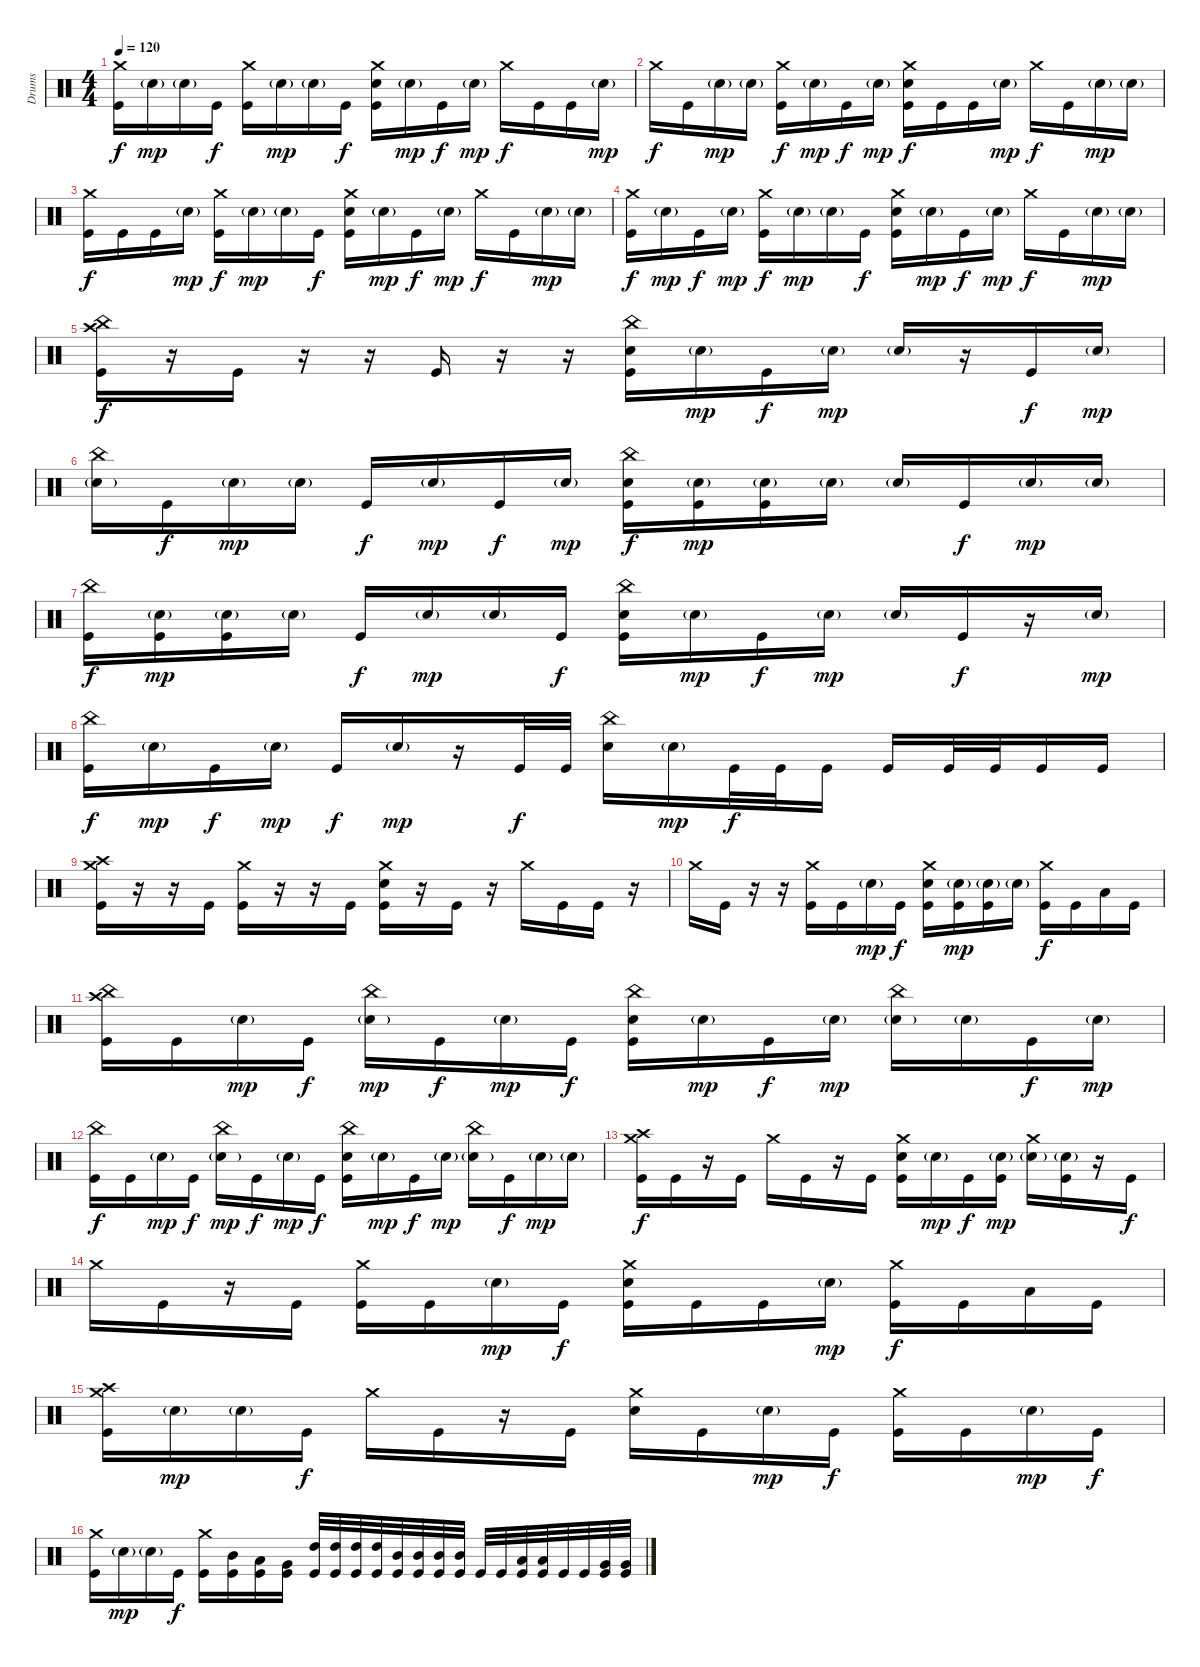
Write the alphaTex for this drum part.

\track ("Drums" "Drums") {instrument percussion}
\staff {score}
\articulation defaults
\ts (4 4)
\tempo 120
\clef neutral
\ks c
("Crash medium (hit)" "Kick (hit)").16{dy f} "Snare (hit) 2"{g}.16{dy mp} "Snare (hit) 2"{g}.16 "Kick (hit)".16{dy f} ("Crash medium (hit)" "Kick (hit)").16 "Snare (hit) 2"{g}.16{dy mp} "Snare (hit) 2"{g}.16 "Kick (hit)".16{dy f} ("Crash medium (hit)" "Kick (hit)" "Snare (hit) 2").16 "Snare (hit) 2"{g}.16{dy mp} "Kick (hit)".16{dy f} "Snare (hit) 2"{g}.16{dy mp} "Crash medium (hit)".16{dy f} "Kick (hit)".16 "Kick (hit)".16 "Snare (hit) 2"{g}.16{dy mp} |
"Crash medium (hit)".16{dy f} "Kick (hit)".16 "Snare (hit) 2"{g}.16{dy mp} "Snare (hit) 2"{g}.16 ("Crash medium (hit)" "Kick (hit)").16{dy f} "Snare (hit) 2"{g}.16{dy mp} "Kick (hit)".16{dy f} "Snare (hit) 2"{g}.16{dy mp} ("Crash medium (hit)" "Snare (hit) 2" "Kick (hit)").16{dy f} "Kick (hit)".16 "Kick (hit)".16 "Snare (hit) 2"{g}.16{dy mp} "Crash medium (hit)".16{dy f} "Kick (hit)".16 "Snare (hit) 2"{g}.16{dy mp} "Snare (hit) 2"{g}.16 |
("Crash medium (hit)" "Kick (hit)").16{dy f} "Kick (hit)".16 "Kick (hit)".16 "Snare (hit) 2"{g}.16{dy mp} ("Kick (hit)" "Crash medium (hit)").16{dy f} "Snare (hit) 2"{g}.16{dy mp} "Snare (hit) 2"{g}.16 "Kick (hit)".16{dy f} ("Crash medium (hit)" "Snare (hit) 2" "Kick (hit)").16 "Snare (hit) 2"{g}.16{dy mp} "Kick (hit)".16{dy f} "Snare (hit) 2"{g}.16{dy mp} "Crash medium (hit)".16{dy f} "Kick (hit)".16 "Snare (hit) 2"{g}.16{dy mp} "Snare (hit) 2"{g}.16 |
("Crash medium (hit)" "Kick (hit)").16{dy f} "Snare (hit) 2"{g}.16{dy mp} "Kick (hit)".16{dy f} "Snare (hit) 2"{g}.16{dy mp} ("Crash medium (hit)" "Kick (hit)").16{dy f} "Snare (hit) 2"{g}.16{dy mp} "Snare (hit) 2"{g}.16 "Kick (hit)".16{dy f} ("Crash medium (hit)" "Snare (hit) 2" "Kick (hit)").16 "Snare (hit) 2"{g}.16{dy mp} "Kick (hit)".16{dy f} "Snare (hit) 2"{g}.16{dy mp} "Crash medium (hit)".16{dy f} "Kick (hit)".16 "Snare (hit) 2"{g}.16{dy mp} "Snare (hit) 2"{g}.16 |
("Crash high (hit)" "China (hit)" "Kick (hit)").16{dy f} r.16 "Kick (hit)".16 r.16 r.16 "Kick (hit)".16 r.16 r.16 ("China (hit)" "Snare (hit) 2" "Kick (hit)").16 "Snare (hit) 2"{g}.16{dy mp} "Kick (hit)".16{dy f} "Snare (hit) 2"{g}.16{dy mp} "Snare (hit) 2"{g}.16 r.16 "Kick (hit)".16{dy f} "Snare (hit) 2"{g}.16{dy mp} |
("China (hit)" "Snare (hit) 2"{g}).16 "Kick (hit)".16{dy f} "Snare (hit) 2"{g}.16{dy mp} "Snare (hit) 2"{g}.16 "Kick (hit)".16{dy f} "Snare (hit) 2"{g}.16{dy mp} "Kick (hit)".16{dy f} "Snare (hit) 2"{g}.16{dy mp} ("China (hit)" "Snare (hit) 2" "Kick (hit)").16{dy f} ("Kick (hit)" "Snare (hit) 2"{g}).16{dy mp} ("Kick (hit)" "Snare (hit) 2"{g}).16 "Snare (hit) 2"{g}.16 "Snare (hit) 2"{g}.16 "Kick (hit)".16{dy f} "Snare (hit) 2"{g}.16{dy mp} "Snare (hit) 2"{g}.16 |
("Kick (hit)" "China (hit)").16{dy f} ("Kick (hit)" "Snare (hit) 2"{g}).16{dy mp} ("Kick (hit)" "Snare (hit) 2"{g}).16 "Snare (hit) 2"{g}.16 "Kick (hit)".16{dy f} "Snare (hit) 2"{g}.16{dy mp} "Snare (hit) 2"{g}.16 "Kick (hit)".16{dy f} ("China (hit)" "Snare (hit) 2" "Kick (hit)").16 "Snare (hit) 2"{g}.16{dy mp} "Kick (hit)".16{dy f} "Snare (hit) 2"{g}.16{dy mp} "Snare (hit) 2"{g}.16 "Kick (hit)".16{dy f} r.16 "Snare (hit) 2"{g}.16{dy mp} |
("China (hit)" "Kick (hit)").16{dy f} "Snare (hit) 2"{g}.16{dy mp} "Kick (hit)".16{dy f} "Snare (hit) 2"{g}.16{dy mp} "Kick (hit)".16{dy f} "Snare (hit) 2"{g}.16{dy mp} r.16 "Kick (hit)".32{dy f} "Kick (hit)".32 ("China (hit)" "Snare (hit) 2").16 "Snare (hit) 2"{g}.16{dy mp} "Kick (hit)".32{dy f} "Kick (hit)".32 "Kick (hit)".16 "Kick (hit)".16 "Kick (hit)".32 "Kick (hit)".32 "Kick (hit)".16 "Kick (hit)".16 |
("Crash high (hit)" "Crash medium (hit)" "Kick (hit)").16 r.16 r.16 "Kick (hit)".16 ("Crash medium (hit)" "Kick (hit)").16 r.16 r.16 "Kick (hit)".16 ("Crash medium (hit)" "Snare (hit) 2" "Kick (hit)").16 r.16 "Kick (hit)".16 r.16 "Crash medium (hit)".16 "Kick (hit)".16 "Kick (hit)".16 r.16 |
"Crash medium (hit)".16 "Kick (hit)".16 r.16 r.16 ("Crash medium (hit)" "Kick (hit)").16 "Kick (hit)".16 "Snare (hit) 2"{g}.16{dy mp} "Kick (hit)".16{dy f} ("Crash medium (hit)" "Snare (hit) 2" "Kick (hit)").16 ("Kick (hit)" "Snare (hit) 2"{g}).16{dy mp} ("Kick (hit)" "Snare (hit) 2"{g}).16 "Snare (hit) 2"{g}.16 ("Crash medium (hit)" "Kick (hit)").16{dy f} "Kick (hit)".16 "Low Tom (hit)".16 "Kick (hit)".16 |
("Crash high (hit)" "China (hit)" "Kick (hit)").16 "Kick (hit)".16 "Snare (hit) 2"{g}.16{dy mp} "Kick (hit)".16{dy f} ("China (hit)" "Snare (hit) 2"{g}).16{dy mp} "Kick (hit)".16{dy f} "Snare (hit) 2"{g}.16{dy mp} "Kick (hit)".16{dy f} ("China (hit)" "Kick (hit)" "Snare (hit) 2").16 "Snare (hit) 2"{g}.16{dy mp} "Kick (hit)".16{dy f} "Snare (hit) 2"{g}.16{dy mp} ("China (hit)" "Snare (hit) 2"{g}).16 "Snare (hit) 2"{g}.16 "Kick (hit)".16{dy f} "Snare (hit) 2"{g}.16{dy mp} |
("China (hit)" "Kick (hit)").16{dy f} "Kick (hit)".16 "Snare (hit) 2"{g}.16{dy mp} "Kick (hit)".16{dy f} ("China (hit)" "Snare (hit) 2"{g}).16{dy mp} "Kick (hit)".16{dy f} "Snare (hit) 2"{g}.16{dy mp} "Kick (hit)".16{dy f} ("China (hit)" "Snare (hit) 2" "Kick (hit)").16 "Snare (hit) 2"{g}.16{dy mp} "Kick (hit)".16{dy f} "Snare (hit) 2"{g}.16{dy mp} ("China (hit)" "Snare (hit) 2"{g}).16 "Kick (hit)".16{dy f} "Snare (hit) 2"{g}.16{dy mp} "Snare (hit) 2"{g}.16 |
("Crash high (hit)" "Crash medium (hit)" "Kick (hit)").16{dy f} "Kick (hit)".16 r.16 "Kick (hit)".16 "Crash medium (hit)".16 "Kick (hit)".16 r.16 "Kick (hit)".16 ("Crash medium (hit)" "Snare (hit) 2" "Kick (hit)").16 "Snare (hit) 2"{g}.16{dy mp} "Kick (hit)".16{dy f} ("Kick (hit)" "Snare (hit) 2"{g}).16{dy mp} ("Crash medium (hit)" "Snare (hit) 2"{g}).16 ("Kick (hit)" "Snare (hit) 2"{g}).16 r.16 "Kick (hit)".16{dy f} |
"Crash medium (hit)".16 "Kick (hit)".16 r.16 "Kick (hit)".16 ("Crash medium (hit)" "Kick (hit)").16 "Kick (hit)".16 "Snare (hit) 2"{g}.16{dy mp} "Kick (hit)".16{dy f} ("Crash medium (hit)" "Snare (hit) 2" "Kick (hit)").16 "Kick (hit)".16 "Kick (hit)".16 "Snare (hit) 2"{g}.16{dy mp} ("Crash medium (hit)" "Kick (hit)").16{dy f} "Kick (hit)".16 "Low Tom (hit)".16 "Kick (hit)".16 |
("Crash high (hit)" "Crash medium (hit)" "Kick (hit)").16 "Snare (hit) 2"{g}.16{dy mp} "Snare (hit) 2"{g}.16 "Kick (hit)".16{dy f} "Crash medium (hit)".16 "Kick (hit)".16 r.16 "Kick (hit)".16 ("Crash medium (hit)" "Snare (hit) 2").16 "Kick (hit)".16 "Snare (hit) 2"{g}.16{dy mp} "Kick (hit)".16{dy f} ("Crash medium (hit)" "Kick (hit)").16 "Kick (hit)".16 "Snare (hit) 2"{g}.16{dy mp} "Kick (hit)".16{dy f} |
("Crash medium (hit)" "Kick (hit)").16 "Snare (hit) 2"{g}.16{dy mp} "Snare (hit) 2"{g}.16 "Kick (hit)".16{dy f} ("Crash medium (hit)" "Kick (hit)").16 ("Kick (hit)" "Mid Tom (hit)").16 ("Kick (hit)" "Low Tom (hit)").16 ("Kick (hit)" "Very Low Tom (hit)").16 ("High Tom (hit)" "Kick (hit)").32 ("High Tom (hit)" "Kick (hit)").32 ("High Tom (hit)" "Kick (hit)").32 ("High Tom (hit)" "Kick (hit)").32 ("Mid Tom (hit)" "Kick (hit)").32 ("Mid Tom (hit)" "Kick (hit)").32 ("Mid Tom (hit)" "Kick (hit)").32 ("Mid Tom (hit)" "Kick (hit)").32 "Kick (hit)".32 "Kick (hit)".32 ("Low Tom (hit)" "Kick (hit)").32 ("Low Tom (hit)" "Kick (hit)").32 "Kick (hit)".32 "Kick (hit)".32 ("Kick (hit)" "Very Low Tom (hit)").32 ("Very Low Tom (hit)" "Kick (hit)").32
